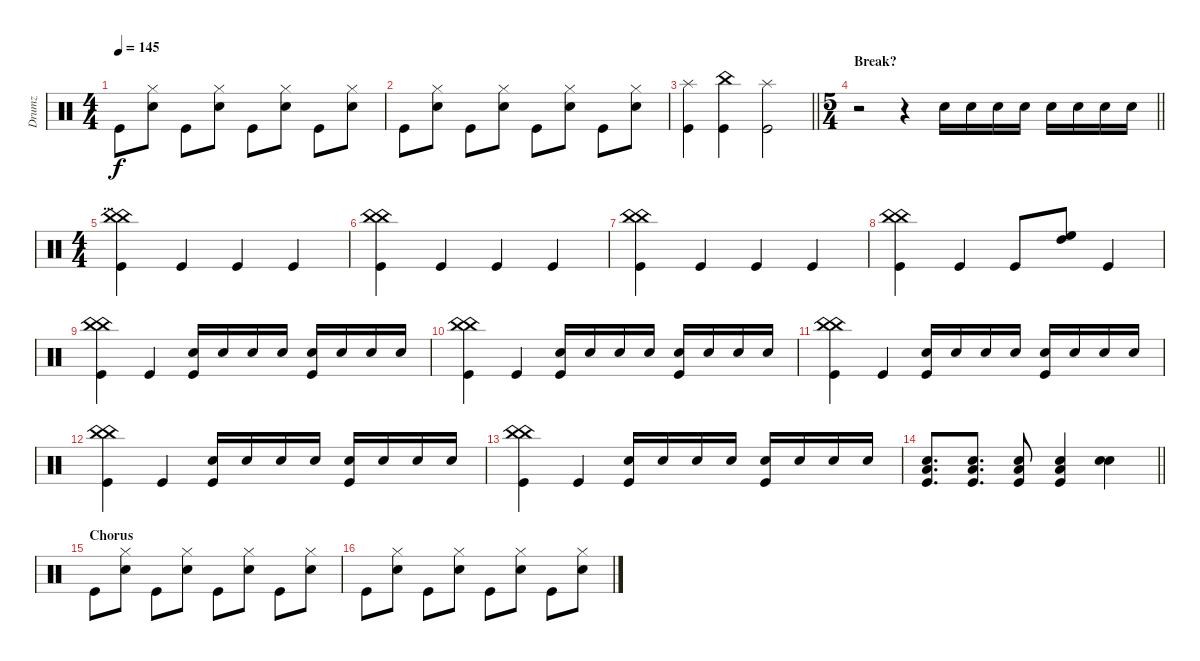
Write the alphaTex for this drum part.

\track ("Drumz" "Drumz") {instrument percussion}
\staff {score}
\articulation defaults
\ts (4 4)
\tempo 145
\clef neutral
\ks c "Kick (hit)".8{dy f}
("Hi-Hat (closed)" "Snare (hit) 2").8 "Kick (hit)".8 ("Hi-Hat (closed)" "Snare (hit) 2").8 "Kick (hit)".8 ("Hi-Hat (closed)" "Snare (hit) 2").8 "Kick (hit)".8 ("Hi-Hat (closed)" "Snare (hit) 2").8 |
"Kick (hit)".8 ("Hi-Hat (closed)" "Snare (hit) 2").8 "Kick (hit)".8 ("Hi-Hat (closed)" "Snare (hit) 2").8 "Kick (hit)".8 ("Hi-Hat (closed)" "Snare (hit) 2").8 "Kick (hit)".8 ("Hi-Hat (closed)" "Snare (hit) 2").8 |
\barLineRight lightlight
("Kick (hit)" "Splash (hit)").4 ("Kick (hit)" "China (hit)").4 ("Kick (hit)" "Splash (hit)").2 |
\ts (5 4)
\section ("" "Break?")
\barLineRight lightlight
r.2 r.4 "Snare (hit) 2".16 "Snare (hit) 2".16 "Snare (hit) 2".16 "Snare (hit) 2".16 "Snare (hit) 2".16 "Snare (hit) 2".16 "Snare (hit) 2".16 "Snare (hit) 2".16 |
\ts (4 4)
\section ("" "...")
("Kick (hit)" "China (hit)" "China (hit)").4 "Kick (hit)".4 "Kick (hit)".4 "Kick (hit)".4 |
("Kick (hit)" "China (hit)" "China (hit)").4 "Kick (hit)".4 "Kick (hit)".4 "Kick (hit)".4 |
("Kick (hit)" "China (hit)" "China (hit)").4 "Kick (hit)".4 "Kick (hit)".4 "Kick (hit)".4 |
("Kick (hit)" "China (hit)" "China (hit)").4 "Kick (hit)".4 "Kick (hit)".8 ("High Tom (hit)" "High Floor Tom (hit)").8 "Kick (hit)".4 |
("Kick (hit)" "China (hit)" "China (hit)").4 "Kick (hit)".4 ("Kick (hit)" "Snare (hit) 2").16 "Snare (hit) 2".16 "Snare (hit) 2".16 "Snare (hit) 2".16 ("Kick (hit)" "Snare (hit) 2").16 "Snare (hit) 2".16 "Snare (hit) 2".16 "Snare (hit) 2".16 |
("Kick (hit)" "China (hit)" "China (hit)").4 "Kick (hit)".4 ("Kick (hit)" "Snare (hit) 2").16 "Snare (hit) 2".16 "Snare (hit) 2".16 "Snare (hit) 2".16 ("Kick (hit)" "Snare (hit) 2").16 "Snare (hit) 2".16 "Snare (hit) 2".16 "Snare (hit) 2".16 |
("Kick (hit)" "China (hit)" "China (hit)").4 "Kick (hit)".4 ("Kick (hit)" "Snare (hit) 2").16 "Snare (hit) 2".16 "Snare (hit) 2".16 "Snare (hit) 2".16 ("Kick (hit)" "Snare (hit) 2").16 "Snare (hit) 2".16 "Snare (hit) 2".16 "Snare (hit) 2".16 |
("Kick (hit)" "China (hit)" "China (hit)").4 "Kick (hit)".4 ("Kick (hit)" "Snare (hit) 2").16 "Snare (hit) 2".16 "Snare (hit) 2".16 "Snare (hit) 2".16 ("Kick (hit)" "Snare (hit) 2").16 "Snare (hit) 2".16 "Snare (hit) 2".16 "Snare (hit) 2".16 |
("Kick (hit)" "China (hit)" "China (hit)").4 "Kick (hit)".4 ("Kick (hit)" "Snare (hit) 2").16 "Snare (hit) 2".16 "Snare (hit) 2".16 "Snare (hit) 2".16 ("Kick (hit)" "Snare (hit) 2").16 "Snare (hit) 2".16 "Snare (hit) 2".16 "Snare (hit) 2".16 |
\barLineRight lightlight
("Kick (hit)" "Low Tom (hit)" "Snare (hit) 2").8{d} ("Kick (hit)" "Low Tom (hit)" "Snare (hit) 2").8{d} ("Kick (hit)" "Low Tom (hit)" "Snare (hit) 2").8 ("Kick (hit)" "Low Tom (hit)" "Snare (hit) 2").4 ("Snare (hit) 2" "Snare (hit) 2").4 |
\section ("" "Chorus")
"Kick (hit)".8 ("Hi-Hat (closed)" "Snare (hit) 2").8 "Kick (hit)".8 ("Hi-Hat (closed)" "Snare (hit) 2").8 "Kick (hit)".8 ("Hi-Hat (closed)" "Snare (hit) 2").8 "Kick (hit)".8 ("Hi-Hat (closed)" "Snare (hit) 2").8 |
"Kick (hit)".8 ("Hi-Hat (closed)" "Snare (hit) 2").8 "Kick (hit)".8 ("Hi-Hat (closed)" "Snare (hit) 2").8 "Kick (hit)".8 ("Hi-Hat (closed)" "Snare (hit) 2").8 "Kick (hit)".8 ("Hi-Hat (closed)" "Snare (hit) 2").8
